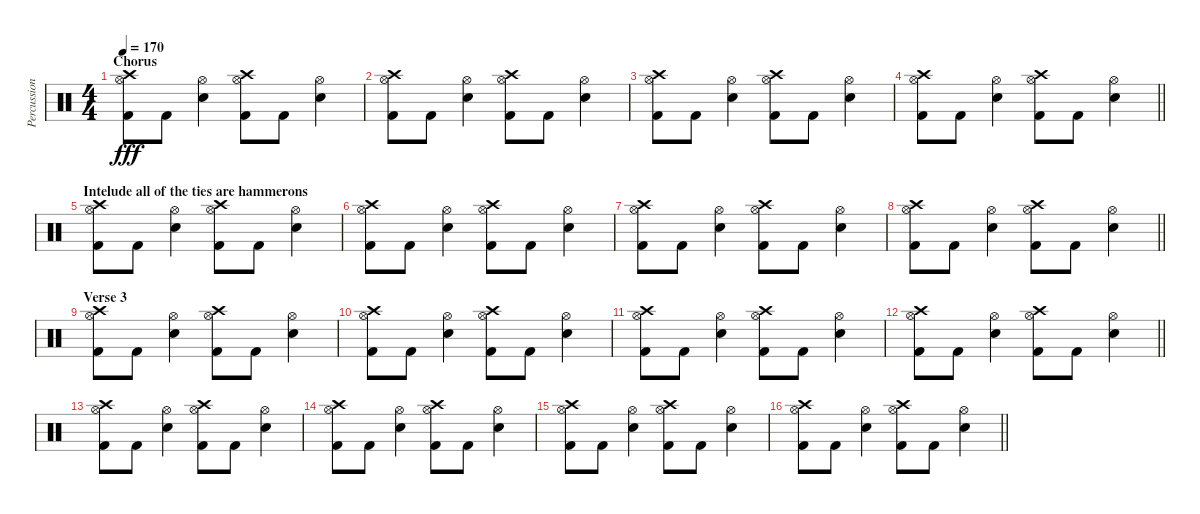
\track ("Percussion" "Percussion") {instrument percussion}
\staff {score}
\articulation defaults
\ts (4 4)
\section ("" "Chorus")
\tempo 170
\clef neutral
\ks c
("Crash high (hit)" "Hi-Hat (open)" "Kick (hit) 2").8{dy fff} "Kick (hit) 2".8 ("Hi-Hat (open)" "Electric Snare (hit)").4 ("Crash high (hit)" "Hi-Hat (open)" "Kick (hit) 2").8 "Kick (hit) 2".8 ("Hi-Hat (open)" "Electric Snare (hit)").4 |
("Crash high (hit)" "Hi-Hat (open)" "Kick (hit) 2").8 "Kick (hit) 2".8 ("Hi-Hat (open)" "Electric Snare (hit)").4 ("Crash high (hit)" "Hi-Hat (open)" "Kick (hit) 2").8 "Kick (hit) 2".8 ("Hi-Hat (open)" "Electric Snare (hit)").4 |
("Crash high (hit)" "Hi-Hat (open)" "Kick (hit) 2").8 "Kick (hit) 2".8 ("Hi-Hat (open)" "Electric Snare (hit)").4 ("Crash high (hit)" "Hi-Hat (open)" "Kick (hit) 2").8 "Kick (hit) 2".8 ("Hi-Hat (open)" "Electric Snare (hit)").4 |
\barLineRight lightlight
("Crash high (hit)" "Hi-Hat (open)" "Kick (hit) 2").8 "Kick (hit) 2".8 ("Hi-Hat (open)" "Electric Snare (hit)").4 ("Crash high (hit)" "Hi-Hat (open)" "Kick (hit) 2").8 "Kick (hit) 2".8 ("Hi-Hat (open)" "Electric Snare (hit)").4 |
\section ("" "Intelude all of the ties are hammerons")
("Crash high (hit)" "Hi-Hat (open)" "Kick (hit) 2").8 "Kick (hit) 2".8 ("Hi-Hat (open)" "Electric Snare (hit)").4 ("Crash high (hit)" "Hi-Hat (open)" "Kick (hit) 2").8 "Kick (hit) 2".8 ("Hi-Hat (open)" "Electric Snare (hit)").4 |
("Crash high (hit)" "Hi-Hat (open)" "Kick (hit) 2").8 "Kick (hit) 2".8 ("Hi-Hat (open)" "Electric Snare (hit)").4 ("Crash high (hit)" "Hi-Hat (open)" "Kick (hit) 2").8 "Kick (hit) 2".8 ("Hi-Hat (open)" "Electric Snare (hit)").4 |
("Crash high (hit)" "Hi-Hat (open)" "Kick (hit) 2").8 "Kick (hit) 2".8 ("Hi-Hat (open)" "Electric Snare (hit)").4 ("Crash high (hit)" "Hi-Hat (open)" "Kick (hit) 2").8 "Kick (hit) 2".8 ("Hi-Hat (open)" "Electric Snare (hit)").4 |
\barLineRight lightlight
("Crash high (hit)" "Hi-Hat (open)" "Kick (hit) 2").8 "Kick (hit) 2".8 ("Hi-Hat (open)" "Electric Snare (hit)").4 ("Crash high (hit)" "Hi-Hat (open)" "Kick (hit) 2").8 "Kick (hit) 2".8 ("Hi-Hat (open)" "Electric Snare (hit)").4 |
\section ("" "Verse 3")
("Crash high (hit)" "Hi-Hat (open)" "Kick (hit) 2").8 "Kick (hit) 2".8 ("Hi-Hat (open)" "Electric Snare (hit)").4 ("Crash high (hit)" "Hi-Hat (open)" "Kick (hit) 2").8 "Kick (hit) 2".8 ("Hi-Hat (open)" "Electric Snare (hit)").4 |
("Crash high (hit)" "Hi-Hat (open)" "Kick (hit) 2").8 "Kick (hit) 2".8 ("Hi-Hat (open)" "Electric Snare (hit)").4 ("Crash high (hit)" "Hi-Hat (open)" "Kick (hit) 2").8 "Kick (hit) 2".8 ("Hi-Hat (open)" "Electric Snare (hit)").4 |
("Crash high (hit)" "Hi-Hat (open)" "Kick (hit) 2").8 "Kick (hit) 2".8 ("Hi-Hat (open)" "Electric Snare (hit)").4 ("Crash high (hit)" "Hi-Hat (open)" "Kick (hit) 2").8 "Kick (hit) 2".8 ("Hi-Hat (open)" "Electric Snare (hit)").4 |
\barLineRight lightlight
("Crash high (hit)" "Hi-Hat (open)" "Kick (hit) 2").8 "Kick (hit) 2".8 ("Hi-Hat (open)" "Electric Snare (hit)").4 ("Crash high (hit)" "Hi-Hat (open)" "Kick (hit) 2").8 "Kick (hit) 2".8 ("Hi-Hat (open)" "Electric Snare (hit)").4 |
("Crash high (hit)" "Hi-Hat (open)" "Kick (hit) 2").8 "Kick (hit) 2".8 ("Hi-Hat (open)" "Electric Snare (hit)").4 ("Crash high (hit)" "Hi-Hat (open)" "Kick (hit) 2").8 "Kick (hit) 2".8 ("Hi-Hat (open)" "Electric Snare (hit)").4 |
("Crash high (hit)" "Hi-Hat (open)" "Kick (hit) 2").8 "Kick (hit) 2".8 ("Hi-Hat (open)" "Electric Snare (hit)").4 ("Crash high (hit)" "Hi-Hat (open)" "Kick (hit) 2").8 "Kick (hit) 2".8 ("Hi-Hat (open)" "Electric Snare (hit)").4 |
("Crash high (hit)" "Hi-Hat (open)" "Kick (hit) 2").8 "Kick (hit) 2".8 ("Hi-Hat (open)" "Electric Snare (hit)").4 ("Crash high (hit)" "Hi-Hat (open)" "Kick (hit) 2").8 "Kick (hit) 2".8 ("Hi-Hat (open)" "Electric Snare (hit)").4 |
\barLineRight lightlight
("Crash high (hit)" "Hi-Hat (open)" "Kick (hit) 2").8 "Kick (hit) 2".8 ("Hi-Hat (open)" "Electric Snare (hit)").4 ("Crash high (hit)" "Hi-Hat (open)" "Kick (hit) 2").8 "Kick (hit) 2".8 ("Hi-Hat (open)" "Electric Snare (hit)").4
